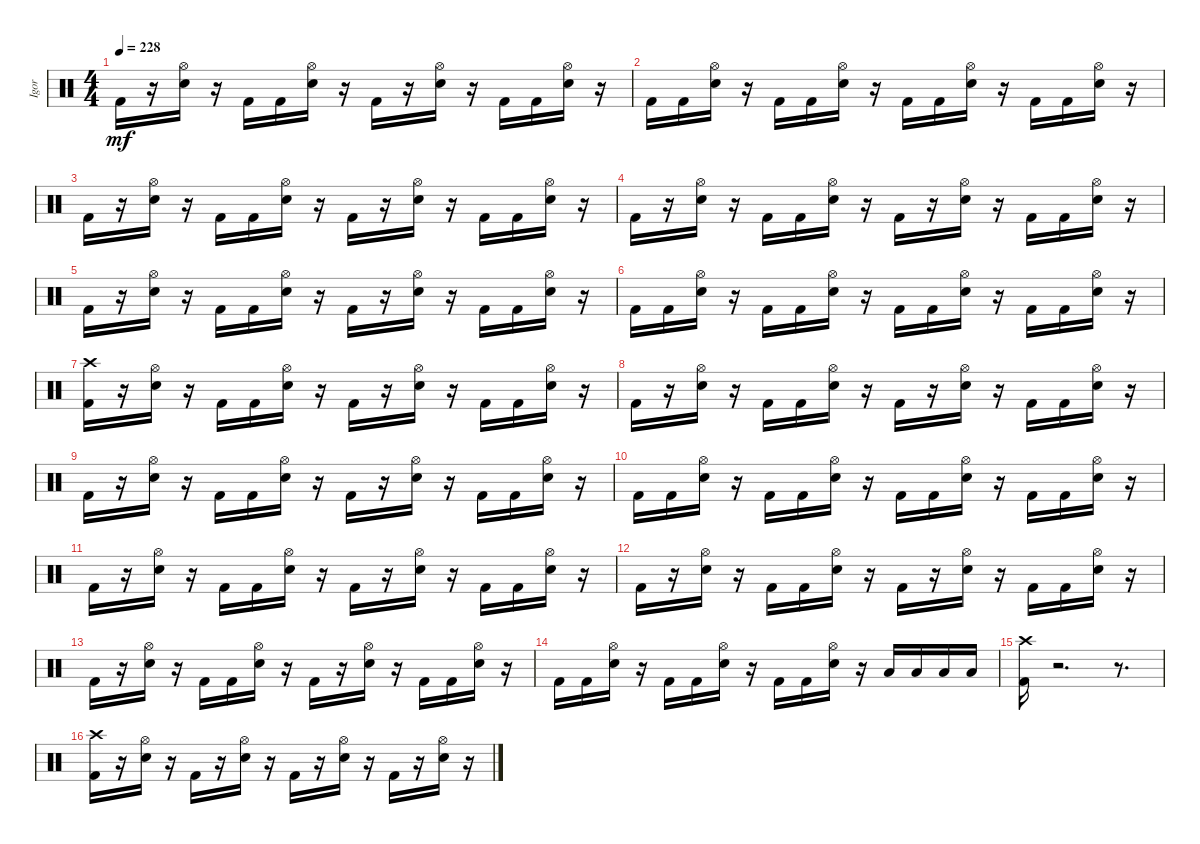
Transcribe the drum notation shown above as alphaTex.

\track ("Igor" "Igor") {instrument percussion}
\staff {score}
\articulation defaults
\ts (4 4)
\tempo 228
\clef neutral
\ks c "Kick (hit) 2".16{dy mf}
r.16 ("Snare (hit) 2" "Hi-Hat (open)").16 r.16 "Kick (hit) 2".16 "Kick (hit) 2".16 ("Snare (hit) 2" "Hi-Hat (open)").16 r.16 "Kick (hit) 2".16 r.16 ("Snare (hit) 2" "Hi-Hat (open)").16 r.16 "Kick (hit) 2".16 "Kick (hit) 2".16 ("Snare (hit) 2" "Hi-Hat (open)").16 r.16 |
"Kick (hit) 2".16 "Kick (hit) 2".16 ("Snare (hit) 2" "Hi-Hat (open)").16 r.16 "Kick (hit) 2".16 "Kick (hit) 2".16 ("Snare (hit) 2" "Hi-Hat (open)").16 r.16 "Kick (hit) 2".16 "Kick (hit) 2".16 ("Snare (hit) 2" "Hi-Hat (open)").16 r.16 "Kick (hit) 2".16 "Kick (hit) 2".16 ("Snare (hit) 2" "Hi-Hat (open)").16 r.16 |
"Kick (hit) 2".16 r.16 ("Snare (hit) 2" "Hi-Hat (open)").16 r.16 "Kick (hit) 2".16 "Kick (hit) 2".16 ("Snare (hit) 2" "Hi-Hat (open)").16 r.16 "Kick (hit) 2".16 r.16 ("Snare (hit) 2" "Hi-Hat (open)").16 r.16 "Kick (hit) 2".16 "Kick (hit) 2".16 ("Snare (hit) 2" "Hi-Hat (open)").16 r.16 |
"Kick (hit) 2".16 r.16 ("Snare (hit) 2" "Hi-Hat (open)").16 r.16 "Kick (hit) 2".16 "Kick (hit) 2".16 ("Snare (hit) 2" "Hi-Hat (open)").16 r.16 "Kick (hit) 2".16 r.16 ("Snare (hit) 2" "Hi-Hat (open)").16 r.16 "Kick (hit) 2".16 "Kick (hit) 2".16 ("Snare (hit) 2" "Hi-Hat (open)").16 r.16 |
"Kick (hit) 2".16 r.16 ("Snare (hit) 2" "Hi-Hat (open)").16 r.16 "Kick (hit) 2".16 "Kick (hit) 2".16 ("Snare (hit) 2" "Hi-Hat (open)").16 r.16 "Kick (hit) 2".16 r.16 ("Snare (hit) 2" "Hi-Hat (open)").16 r.16 "Kick (hit) 2".16 "Kick (hit) 2".16 ("Snare (hit) 2" "Hi-Hat (open)").16 r.16 |
"Kick (hit) 2".16 "Kick (hit) 2".16 ("Snare (hit) 2" "Hi-Hat (open)").16 r.16 "Kick (hit) 2".16 "Kick (hit) 2".16 ("Snare (hit) 2" "Hi-Hat (open)").16 r.16 "Kick (hit) 2".16 "Kick (hit) 2".16 ("Snare (hit) 2" "Hi-Hat (open)").16 r.16 "Kick (hit) 2".16 "Kick (hit) 2".16 ("Snare (hit) 2" "Hi-Hat (open)").16 r.16 |
("Kick (hit) 2" "Crash high (hit)").16 r.16 ("Snare (hit) 2" "Hi-Hat (open)").16 r.16 "Kick (hit) 2".16 "Kick (hit) 2".16 ("Snare (hit) 2" "Hi-Hat (open)").16 r.16 "Kick (hit) 2".16 r.16 ("Snare (hit) 2" "Hi-Hat (open)").16 r.16 "Kick (hit) 2".16 "Kick (hit) 2".16 ("Snare (hit) 2" "Hi-Hat (open)").16 r.16 |
"Kick (hit) 2".16 r.16 ("Snare (hit) 2" "Hi-Hat (open)").16 r.16 "Kick (hit) 2".16 "Kick (hit) 2".16 ("Snare (hit) 2" "Hi-Hat (open)").16 r.16 "Kick (hit) 2".16 r.16 ("Snare (hit) 2" "Hi-Hat (open)").16 r.16 "Kick (hit) 2".16 "Kick (hit) 2".16 ("Snare (hit) 2" "Hi-Hat (open)").16 r.16 |
"Kick (hit) 2".16 r.16 ("Snare (hit) 2" "Hi-Hat (open)").16 r.16 "Kick (hit) 2".16 "Kick (hit) 2".16 ("Snare (hit) 2" "Hi-Hat (open)").16 r.16 "Kick (hit) 2".16 r.16 ("Snare (hit) 2" "Hi-Hat (open)").16 r.16 "Kick (hit) 2".16 "Kick (hit) 2".16 ("Snare (hit) 2" "Hi-Hat (open)").16 r.16 |
"Kick (hit) 2".16 "Kick (hit) 2".16 ("Snare (hit) 2" "Hi-Hat (open)").16 r.16 "Kick (hit) 2".16 "Kick (hit) 2".16 ("Snare (hit) 2" "Hi-Hat (open)").16 r.16 "Kick (hit) 2".16 "Kick (hit) 2".16 ("Snare (hit) 2" "Hi-Hat (open)").16 r.16 "Kick (hit) 2".16 "Kick (hit) 2".16 ("Snare (hit) 2" "Hi-Hat (open)").16 r.16 |
"Kick (hit) 2".16 r.16 ("Snare (hit) 2" "Hi-Hat (open)").16 r.16 "Kick (hit) 2".16 "Kick (hit) 2".16 ("Snare (hit) 2" "Hi-Hat (open)").16 r.16 "Kick (hit) 2".16 r.16 ("Snare (hit) 2" "Hi-Hat (open)").16 r.16 "Kick (hit) 2".16 "Kick (hit) 2".16 ("Snare (hit) 2" "Hi-Hat (open)").16 r.16 |
"Kick (hit) 2".16 r.16 ("Snare (hit) 2" "Hi-Hat (open)").16 r.16 "Kick (hit) 2".16 "Kick (hit) 2".16 ("Snare (hit) 2" "Hi-Hat (open)").16 r.16 "Kick (hit) 2".16 r.16 ("Snare (hit) 2" "Hi-Hat (open)").16 r.16 "Kick (hit) 2".16 "Kick (hit) 2".16 ("Snare (hit) 2" "Hi-Hat (open)").16 r.16 |
"Kick (hit) 2".16 r.16 ("Snare (hit) 2" "Hi-Hat (open)").16 r.16 "Kick (hit) 2".16 "Kick (hit) 2".16 ("Snare (hit) 2" "Hi-Hat (open)").16 r.16 "Kick (hit) 2".16 r.16 ("Snare (hit) 2" "Hi-Hat (open)").16 r.16 "Kick (hit) 2".16 "Kick (hit) 2".16 ("Snare (hit) 2" "Hi-Hat (open)").16 r.16 |
"Kick (hit) 2".16 "Kick (hit) 2".16 ("Snare (hit) 2" "Hi-Hat (open)").16 r.16 "Kick (hit) 2".16 "Kick (hit) 2".16 ("Snare (hit) 2" "Hi-Hat (open)").16 r.16 "Kick (hit) 2".16 "Kick (hit) 2".16 ("Snare (hit) 2" "Hi-Hat (open)").16 r.16 "Low Tom (hit)".16 "Low Tom (hit)".16 "Low Floor Tom (hit)".16 "Low Floor Tom (hit)".16 |
("Kick (hit) 2" "Crash high (hit)").16 r.2{d} r.8{d} |
("Kick (hit) 2" "Crash high (hit)").16 r.16 ("Snare (hit) 2" "Hi-Hat (open)").16 r.16 "Kick (hit) 2".16 r.16 ("Snare (hit) 2" "Hi-Hat (open)").16 r.16 "Kick (hit) 2".16 r.16 ("Snare (hit) 2" "Hi-Hat (open)").16 r.16 "Kick (hit) 2".16 r.16 ("Snare (hit) 2" "Hi-Hat (open)").16 r.16
